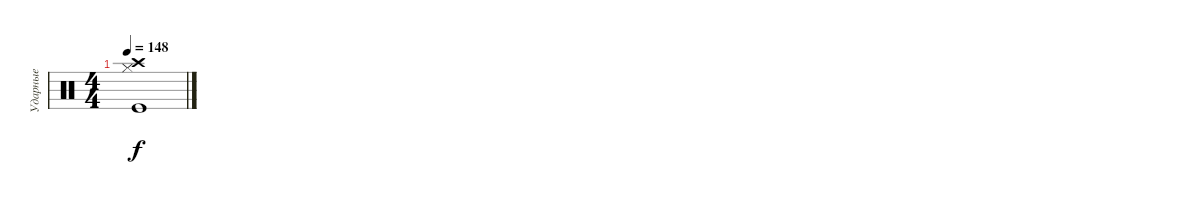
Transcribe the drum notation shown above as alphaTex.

\track ("Ударные" "Ударные") {instrument percussion}
\staff {score}
\articulation defaults
\ts (4 4)
\tempo 148
\clef neutral
\ks c
("Hi-Hat (closed)" "Crash high (hit)" "Kick (hit)").1{dy f}
